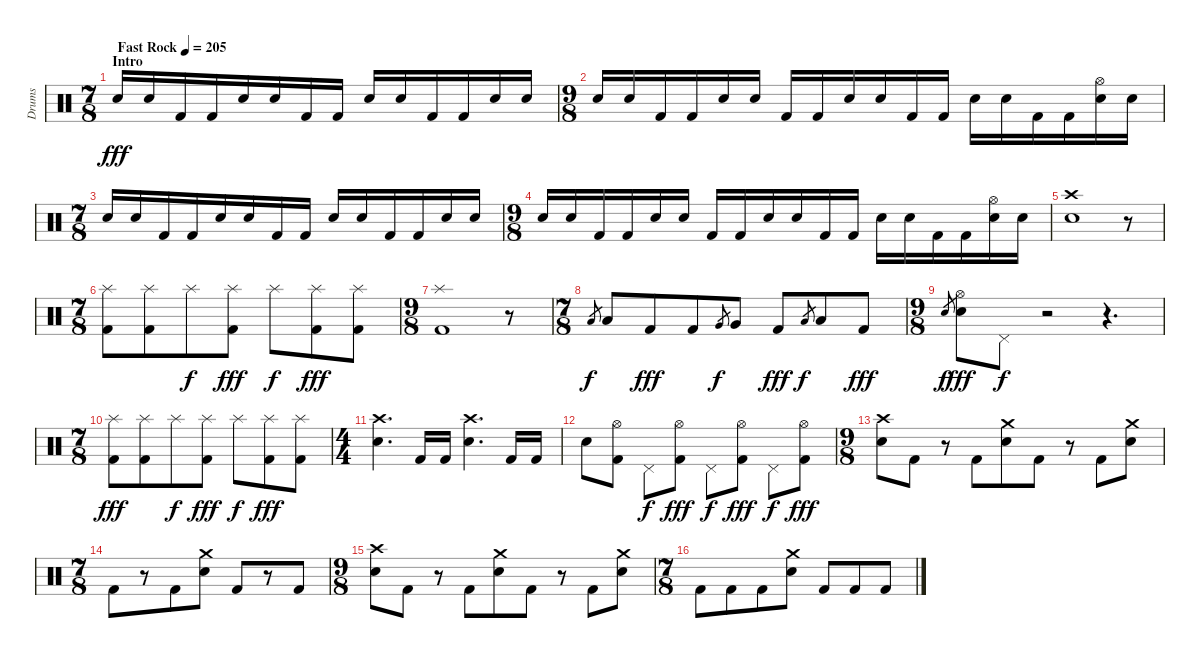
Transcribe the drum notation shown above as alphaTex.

\track ("Drums" "Drums") {instrument percussion}
\staff {score}
\articulation defaults
\ts (7 8)
\section ("" "Intro")
\tempo (205 "Fast Rock")
\clef neutral
\ks c "Snare (hit) 2".16{dy fff} "Snare (hit) 2".16 "Kick (hit) 2".16 "Kick (hit) 2".16 "Snare (hit) 2".16 "Snare (hit) 2".16 "Kick (hit) 2".16 "Kick (hit) 2".16 "Snare (hit) 2".16 "Snare (hit) 2".16 "Kick (hit) 2".16 "Kick (hit) 2".16 "Snare (hit) 2".16 "Snare (hit) 2".16
|
\ts (9 8)
"Snare (hit) 2".16 "Snare (hit) 2".16 "Kick (hit) 2".16 "Kick (hit) 2".16 "Snare (hit) 2".16 "Snare (hit) 2".16 "Kick (hit) 2".16 "Kick (hit) 2".16 "Snare (hit) 2".16 "Snare (hit) 2".16 "Kick (hit) 2".16 "Kick (hit) 2".16 "Snare (hit) 2".16 "Snare (hit) 2".16 "Kick (hit) 2".16 "Kick (hit) 2".16 ("Hi-Hat (open)" "Snare (hit) 2").16 "Snare (hit) 2".16 |
\ts (7 8)
"Snare (hit) 2".16 "Snare (hit) 2".16 "Kick (hit) 2".16 "Kick (hit) 2".16 "Snare (hit) 2".16 "Snare (hit) 2".16 "Kick (hit) 2".16 "Kick (hit) 2".16 "Snare (hit) 2".16 "Snare (hit) 2".16 "Kick (hit) 2".16 "Kick (hit) 2".16 "Snare (hit) 2".16 "Snare (hit) 2".16 |
\ts (9 8)
"Snare (hit) 2".16 "Snare (hit) 2".16 "Kick (hit) 2".16 "Kick (hit) 2".16 "Snare (hit) 2".16 "Snare (hit) 2".16 "Kick (hit) 2".16 "Kick (hit) 2".16 "Snare (hit) 2".16 "Snare (hit) 2".16 "Kick (hit) 2".16 "Kick (hit) 2".16 "Snare (hit) 2".16 "Snare (hit) 2".16 "Kick (hit) 2".16 "Kick (hit) 2".16 ("Hi-Hat (open)" "Snare (hit) 2").16 "Snare (hit) 2".16 |
("Crash high (hit)" "Snare (hit) 2").1 r.8 |
\ts (7 8)
("Splash (hit)" "Kick (hit) 2").8 ("Splash (hit)" "Kick (hit) 2").8 "Splash (hit)".8{dy f} ("Splash (hit)" "Kick (hit) 2").8{dy fff} "Splash (hit)".8{dy f} ("Splash (hit)" "Kick (hit) 2").8{dy fff} ("Splash (hit)" "Kick (hit) 2").8 |
\ts (9 8)
("Splash (hit)" "Kick (hit) 2").1 r.8 |
\ts (7 8)
"Low Tom (hit)".8{gr dy f} "Low Tom (hit)".8 "Kick (hit) 2".8{dy fff} "Kick (hit) 2".8 "Very Low Tom (hit)".8{gr dy f} "Very Low Tom (hit)".8 "Kick (hit) 2".8{dy fff} "Low Floor Tom (hit)".8{gr dy f} "Low Floor Tom (hit)".8 "Kick (hit) 2".8{dy fff} |
\ts (9 8)
"Snare (hit) 2".8{gr dy f} ("Hi-Hat (open)" "Snare (hit) 2").8{dy fff} "Pedal Hi-Hat (hit)".8{dy f} r.2 r.4{d} |
\ts (7 8)
("Splash (hit)" "Kick (hit) 2").8{dy fff} ("Splash (hit)" "Kick (hit) 2").8 "Splash (hit)".8{dy f} ("Splash (hit)" "Kick (hit) 2").8{dy fff} "Splash (hit)".8{dy f} ("Splash (hit)" "Kick (hit) 2").8{dy fff} ("Splash (hit)" "Kick (hit) 2").8 |
\ts (4 4)
("Crash high (hit)" "Snare (hit) 2").4{d} "Kick (hit) 2".16 "Kick (hit) 2".16 ("Crash high (hit)" "Snare (hit) 2").4{d} "Kick (hit) 2".16 "Kick (hit) 2".16 |
"Snare (hit) 2".8 ("Hi-Hat (open)" "Kick (hit) 2").8 "Pedal Hi-Hat (hit)".8{dy f} ("Hi-Hat (open)" "Kick (hit) 2").8{dy fff} "Pedal Hi-Hat (hit)".8{dy f} ("Hi-Hat (open)" "Kick (hit) 2").8{dy fff} "Pedal Hi-Hat (hit)".8{dy f} ("Hi-Hat (open)" "Kick (hit) 2").8{dy fff} |
\ts (9 8)
("Crash high (hit)" "Snare (hit) 2").8 "Kick (hit) 2".8 r.8 "Kick (hit) 2".8 ("Crash medium (hit)" "Snare (hit) 2").8 "Kick (hit) 2".8 r.8 "Kick (hit) 2".8 ("Crash medium (hit)" "Snare (hit) 2").8 |
\ts (7 8)
"Kick (hit) 2".8 r.8 "Kick (hit) 2".8 ("Crash medium (hit)" "Snare (hit) 2").8 "Kick (hit) 2".8 r.8 "Kick (hit) 2".8 |
\ts (9 8)
("Crash high (hit)" "Snare (hit) 2").8 "Kick (hit) 2".8 r.8 "Kick (hit) 2".8 ("Crash medium (hit)" "Snare (hit) 2").8 "Kick (hit) 2".8 r.8 "Kick (hit) 2".8 ("Crash medium (hit)" "Snare (hit) 2").8 |
\ts (7 8)
"Kick (hit) 2".8 "Kick (hit) 2".8 "Kick (hit) 2".8 ("Crash medium (hit)" "Snare (hit) 2").8 "Kick (hit) 2".8 "Kick (hit) 2".8 "Kick (hit) 2".8
